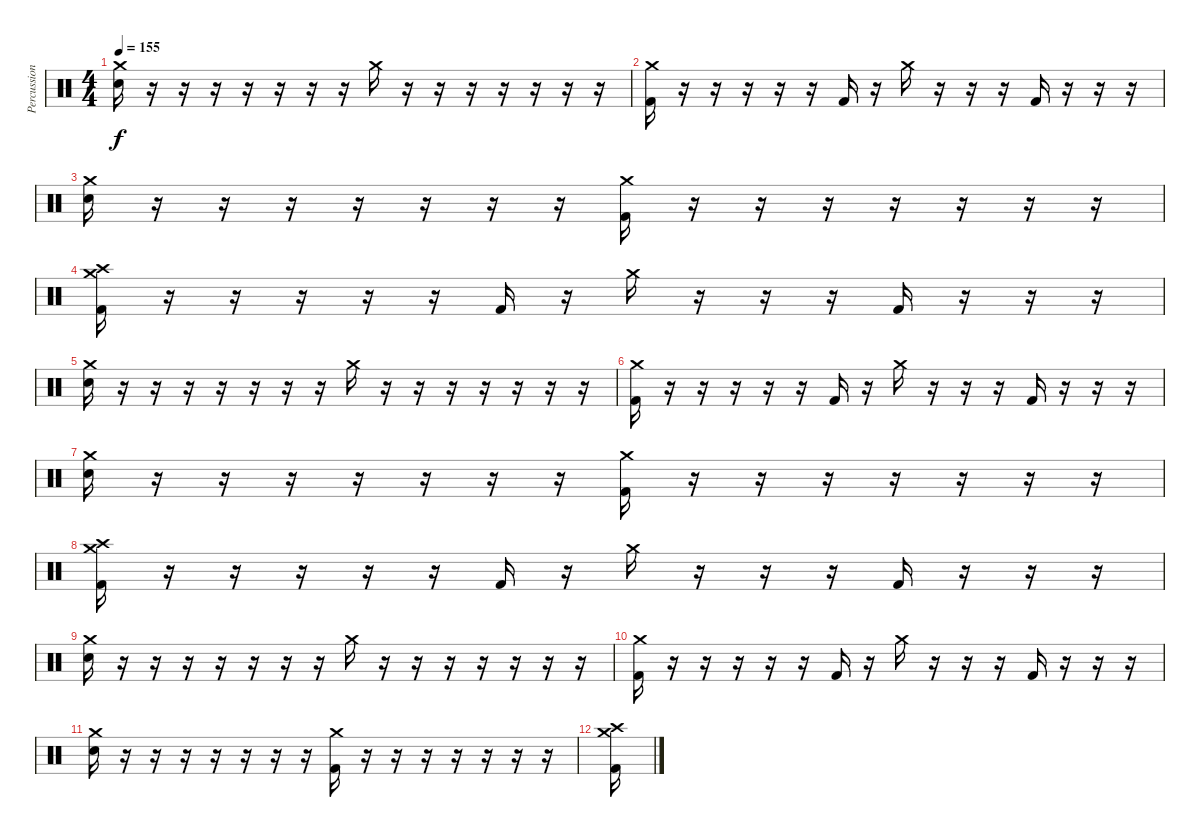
\track ("Percussion" "Percussion") {instrument percussion}
\staff {score}
\articulation defaults
\ts (4 4)
\tempo 155
\clef neutral
\ks c
("Crash medium (hit)" "Snare (hit) 2").16{dy f} r.16 r.16 r.16 r.16 r.16 r.16 r.16 "Crash medium (hit)".16 r.16 r.16 r.16 r.16 r.16 r.16 r.16 |
("Crash medium (hit)" "Kick (hit) 2").16 r.16 r.16 r.16 r.16 r.16 "Kick (hit) 2".16 r.16 "Crash medium (hit)".16 r.16 r.16 r.16 "Kick (hit) 2".16 r.16 r.16 r.16 |
("Crash medium (hit)" "Snare (hit) 2").16 r.16 r.16 r.16 r.16 r.16 r.16 r.16 ("Crash medium (hit)" "Kick (hit) 2").16 r.16 r.16 r.16 r.16 r.16 r.16 r.16 |
("Crash high (hit)" "Crash medium (hit)" "Kick (hit) 2").16 r.16 r.16 r.16 r.16 r.16 "Kick (hit) 2".16 r.16 "Crash medium (hit)".16 r.16 r.16 r.16 "Kick (hit) 2".16 r.16 r.16 r.16 |
("Crash medium (hit)" "Snare (hit) 2").16 r.16 r.16 r.16 r.16 r.16 r.16 r.16 "Crash medium (hit)".16 r.16 r.16 r.16 r.16 r.16 r.16 r.16 |
("Crash medium (hit)" "Kick (hit) 2").16 r.16 r.16 r.16 r.16 r.16 "Kick (hit) 2".16 r.16 "Crash medium (hit)".16 r.16 r.16 r.16 "Kick (hit) 2".16 r.16 r.16 r.16 |
("Crash medium (hit)" "Snare (hit) 2").16 r.16 r.16 r.16 r.16 r.16 r.16 r.16 ("Crash medium (hit)" "Kick (hit) 2").16 r.16 r.16 r.16 r.16 r.16 r.16 r.16 |
("Crash high (hit)" "Crash medium (hit)" "Kick (hit) 2").16 r.16 r.16 r.16 r.16 r.16 "Kick (hit) 2".16 r.16 "Crash medium (hit)".16 r.16 r.16 r.16 "Kick (hit) 2".16 r.16 r.16 r.16 |
("Crash medium (hit)" "Snare (hit) 2").16 r.16 r.16 r.16 r.16 r.16 r.16 r.16 "Crash medium (hit)".16 r.16 r.16 r.16 r.16 r.16 r.16 r.16 |
("Crash medium (hit)" "Kick (hit) 2").16 r.16 r.16 r.16 r.16 r.16 "Kick (hit) 2".16 r.16 "Crash medium (hit)".16 r.16 r.16 r.16 "Kick (hit) 2".16 r.16 r.16 r.16 |
("Crash medium (hit)" "Snare (hit) 2").16 r.16 r.16 r.16 r.16 r.16 r.16 r.16 ("Crash medium (hit)" "Kick (hit) 2").16 r.16 r.16 r.16 r.16 r.16 r.16 r.16 |
("Crash high (hit)" "Crash medium (hit)" "Kick (hit) 2").16
